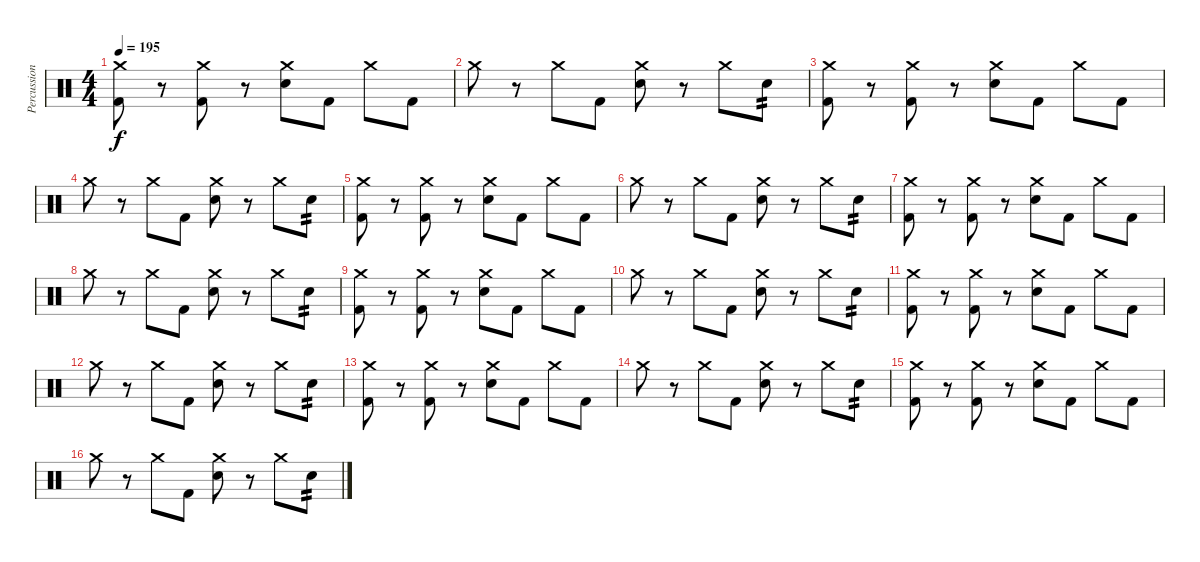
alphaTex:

\track ("Percussion" "Percussion") {instrument percussion}
\staff {score}
\articulation defaults
\ts (4 4)
\tempo 195
\clef neutral
\ks c
("Crash medium (hit)" "Kick (hit) 2").8{dy f} r.8 ("Crash medium (hit)" "Kick (hit) 2").8 r.8 ("Crash medium (hit)" "Electric Snare (hit)").8 "Kick (hit) 2".8 "Crash medium (hit)".8 "Kick (hit) 2".8 |
"Crash medium (hit)".8 r.8 "Crash medium (hit)".8 "Kick (hit) 2".8 ("Crash medium (hit)" "Electric Snare (hit)").8 r.8 "Crash medium (hit)".8 "Electric Snare (hit)".8{tp 2} |
("Crash medium (hit)" "Kick (hit) 2").8 r.8 ("Crash medium (hit)" "Kick (hit) 2").8 r.8 ("Crash medium (hit)" "Electric Snare (hit)").8 "Kick (hit) 2".8 "Crash medium (hit)".8 "Kick (hit) 2".8 |
"Crash medium (hit)".8 r.8 "Crash medium (hit)".8 "Kick (hit) 2".8 ("Crash medium (hit)" "Electric Snare (hit)").8 r.8 "Crash medium (hit)".8 "Electric Snare (hit)".8{tp 2} |
("Crash medium (hit)" "Kick (hit) 2").8 r.8 ("Crash medium (hit)" "Kick (hit) 2").8 r.8 ("Crash medium (hit)" "Electric Snare (hit)").8 "Kick (hit) 2".8 "Crash medium (hit)".8 "Kick (hit) 2".8 |
"Crash medium (hit)".8 r.8 "Crash medium (hit)".8 "Kick (hit) 2".8 ("Crash medium (hit)" "Electric Snare (hit)").8 r.8 "Crash medium (hit)".8 "Electric Snare (hit)".8{tp 2} |
("Crash medium (hit)" "Kick (hit) 2").8 r.8 ("Crash medium (hit)" "Kick (hit) 2").8 r.8 ("Crash medium (hit)" "Electric Snare (hit)").8 "Kick (hit) 2".8 "Crash medium (hit)".8 "Kick (hit) 2".8 |
"Crash medium (hit)".8 r.8 "Crash medium (hit)".8 "Kick (hit) 2".8 ("Crash medium (hit)" "Electric Snare (hit)").8 r.8 "Crash medium (hit)".8 "Electric Snare (hit)".8{tp 2} |
("Crash medium (hit)" "Kick (hit) 2").8 r.8 ("Crash medium (hit)" "Kick (hit) 2").8 r.8 ("Crash medium (hit)" "Electric Snare (hit)").8 "Kick (hit) 2".8 "Crash medium (hit)".8 "Kick (hit) 2".8 |
"Crash medium (hit)".8 r.8 "Crash medium (hit)".8 "Kick (hit) 2".8 ("Crash medium (hit)" "Electric Snare (hit)").8 r.8 "Crash medium (hit)".8 "Electric Snare (hit)".8{tp 2} |
("Crash medium (hit)" "Kick (hit) 2").8 r.8 ("Crash medium (hit)" "Kick (hit) 2").8 r.8 ("Crash medium (hit)" "Electric Snare (hit)").8 "Kick (hit) 2".8 "Crash medium (hit)".8 "Kick (hit) 2".8 |
"Crash medium (hit)".8 r.8 "Crash medium (hit)".8 "Kick (hit) 2".8 ("Crash medium (hit)" "Electric Snare (hit)").8 r.8 "Crash medium (hit)".8 "Electric Snare (hit)".8{tp 2} |
("Crash medium (hit)" "Kick (hit) 2").8 r.8 ("Crash medium (hit)" "Kick (hit) 2").8 r.8 ("Crash medium (hit)" "Electric Snare (hit)").8 "Kick (hit) 2".8 "Crash medium (hit)".8 "Kick (hit) 2".8 |
"Crash medium (hit)".8 r.8 "Crash medium (hit)".8 "Kick (hit) 2".8 ("Crash medium (hit)" "Electric Snare (hit)").8 r.8 "Crash medium (hit)".8 "Electric Snare (hit)".8{tp 2} |
("Crash medium (hit)" "Kick (hit) 2").8 r.8 ("Crash medium (hit)" "Kick (hit) 2").8 r.8 ("Crash medium (hit)" "Electric Snare (hit)").8 "Kick (hit) 2".8 "Crash medium (hit)".8 "Kick (hit) 2".8 |
"Crash medium (hit)".8 r.8 "Crash medium (hit)".8 "Kick (hit) 2".8 ("Crash medium (hit)" "Electric Snare (hit)").8 r.8 "Crash medium (hit)".8 "Electric Snare (hit)".8{tp 2}
